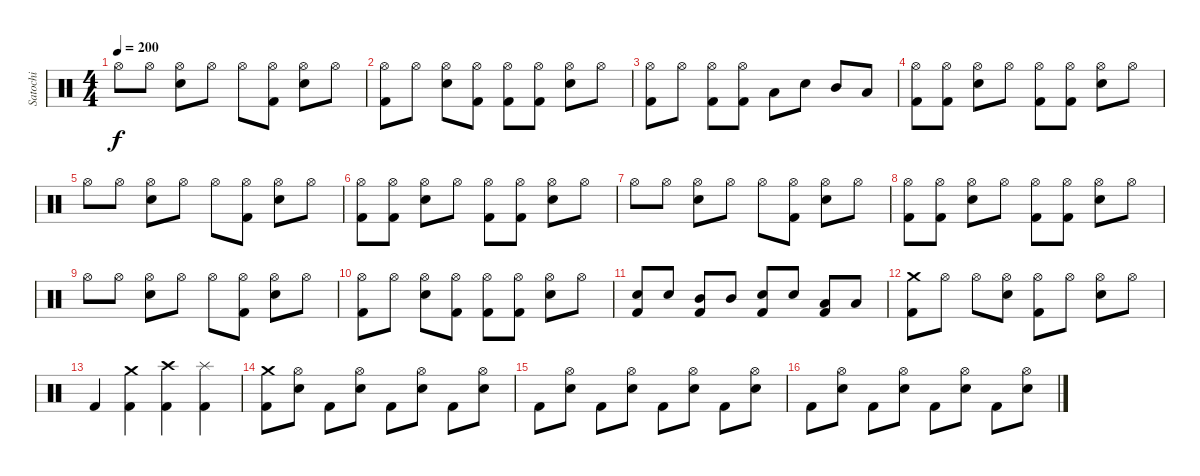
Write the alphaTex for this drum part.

\track ("Satochi" "Satochi") {instrument percussion}
\staff {score}
\articulation defaults
\ts (4 4)
\tempo 200
\clef neutral
\ks c "Hi-Hat (open)".8{dy f} "Hi-Hat (open)".8
("Hi-Hat (open)" "Electric Snare (hit)").8 "Hi-Hat (open)".8 "Hi-Hat (open)".8 ("Hi-Hat (open)" "Kick (hit) 2").8 ("Hi-Hat (open)" "Electric Snare (hit)").8 "Hi-Hat (open)".8 |
("Hi-Hat (open)" "Kick (hit) 2").8 "Hi-Hat (open)".8 ("Hi-Hat (open)" "Electric Snare (hit)").8 ("Hi-Hat (open)" "Kick (hit) 2").8 ("Hi-Hat (open)" "Kick (hit) 2").8 ("Hi-Hat (open)" "Kick (hit) 2").8 ("Hi-Hat (open)" "Electric Snare (hit)").8 "Hi-Hat (open)".8 |
("Hi-Hat (open)" "Kick (hit) 2").8 "Hi-Hat (open)".8 ("Hi-Hat (open)" "Kick (hit) 2").8 ("Hi-Hat (open)" "Kick (hit) 2").8 "Low Tom (hit)".8 "Electric Snare (hit)".8 "Mid Tom (hit)".8 "Low Tom (hit)".8 |
("Hi-Hat (open)" "Kick (hit) 2").8 ("Hi-Hat (open)" "Kick (hit) 2").8 ("Hi-Hat (open)" "Electric Snare (hit)").8 "Hi-Hat (open)".8 ("Hi-Hat (open)" "Kick (hit) 2").8 ("Hi-Hat (open)" "Kick (hit) 2").8 ("Hi-Hat (open)" "Electric Snare (hit)").8 "Hi-Hat (open)".8 |
"Hi-Hat (open)".8 "Hi-Hat (open)".8 ("Hi-Hat (open)" "Electric Snare (hit)").8 "Hi-Hat (open)".8 "Hi-Hat (open)".8 ("Hi-Hat (open)" "Kick (hit) 2").8 ("Hi-Hat (open)" "Electric Snare (hit)").8 "Hi-Hat (open)".8 |
("Hi-Hat (open)" "Kick (hit) 2").8 ("Hi-Hat (open)" "Kick (hit) 2").8 ("Hi-Hat (open)" "Electric Snare (hit)").8 "Hi-Hat (open)".8 ("Hi-Hat (open)" "Kick (hit) 2").8 ("Hi-Hat (open)" "Kick (hit) 2").8 ("Hi-Hat (open)" "Electric Snare (hit)").8 "Hi-Hat (open)".8 |
"Hi-Hat (open)".8 "Hi-Hat (open)".8 ("Hi-Hat (open)" "Electric Snare (hit)").8 "Hi-Hat (open)".8 "Hi-Hat (open)".8 ("Hi-Hat (open)" "Kick (hit) 2").8 ("Hi-Hat (open)" "Electric Snare (hit)").8 "Hi-Hat (open)".8 |
("Hi-Hat (open)" "Kick (hit) 2").8 ("Hi-Hat (open)" "Kick (hit) 2").8 ("Hi-Hat (open)" "Electric Snare (hit)").8 "Hi-Hat (open)".8 ("Hi-Hat (open)" "Kick (hit) 2").8 ("Hi-Hat (open)" "Kick (hit) 2").8 ("Hi-Hat (open)" "Electric Snare (hit)").8 "Hi-Hat (open)".8 |
"Hi-Hat (open)".8 "Hi-Hat (open)".8 ("Hi-Hat (open)" "Electric Snare (hit)").8 "Hi-Hat (open)".8 "Hi-Hat (open)".8 ("Hi-Hat (open)" "Kick (hit) 2").8 ("Hi-Hat (open)" "Electric Snare (hit)").8 "Hi-Hat (open)".8 |
("Hi-Hat (open)" "Kick (hit) 2").8 "Hi-Hat (open)".8 ("Hi-Hat (open)" "Electric Snare (hit)").8 ("Hi-Hat (open)" "Kick (hit) 2").8 ("Hi-Hat (open)" "Kick (hit) 2").8 ("Hi-Hat (open)" "Kick (hit) 2").8 ("Hi-Hat (open)" "Electric Snare (hit)").8 "Hi-Hat (open)".8 |
("Electric Snare (hit)" "Kick (hit) 2").8 "Electric Snare (hit)".8 ("Mid Tom (hit)" "Kick (hit) 2").8 "Mid Tom (hit)".8 ("Electric Snare (hit)" "Kick (hit) 2").8 "Electric Snare (hit)".8 ("Low Tom (hit)" "Kick (hit) 2").8 "Low Tom (hit)".8 |
("Crash medium (hit)" "Kick (hit) 2").8 "Hi-Hat (open)".8 "Hi-Hat (open)".8 ("Hi-Hat (open)" "Electric Snare (hit)").8 ("Hi-Hat (open)" "Kick (hit) 2").8 "Hi-Hat (open)".8 ("Hi-Hat (open)" "Electric Snare (hit)").8 "Hi-Hat (open)".8 |
"Kick (hit) 2".4 ("Crash medium (hit)" "Kick (hit) 2").4 ("Crash high (hit)" "Kick (hit) 2").4 ("Splash (hit)" "Kick (hit) 2").4 |
("Crash medium (hit)" "Kick (hit) 2").8 ("Hi-Hat (open)" "Electric Snare (hit)").8 "Kick (hit) 2".8 ("Hi-Hat (open)" "Electric Snare (hit)").8 "Kick (hit) 2".8 ("Hi-Hat (open)" "Electric Snare (hit)").8 "Kick (hit) 2".8 ("Hi-Hat (open)" "Electric Snare (hit)").8 |
"Kick (hit) 2".8 ("Hi-Hat (open)" "Electric Snare (hit)").8 "Kick (hit) 2".8 ("Hi-Hat (open)" "Electric Snare (hit)").8 "Kick (hit) 2".8 ("Hi-Hat (open)" "Electric Snare (hit)").8 "Kick (hit) 2".8 ("Hi-Hat (open)" "Electric Snare (hit)").8 |
"Kick (hit) 2".8 ("Hi-Hat (open)" "Electric Snare (hit)").8 "Kick (hit) 2".8 ("Hi-Hat (open)" "Electric Snare (hit)").8 "Kick (hit) 2".8 ("Hi-Hat (open)" "Electric Snare (hit)").8 "Kick (hit) 2".8 ("Hi-Hat (open)" "Electric Snare (hit)").8
